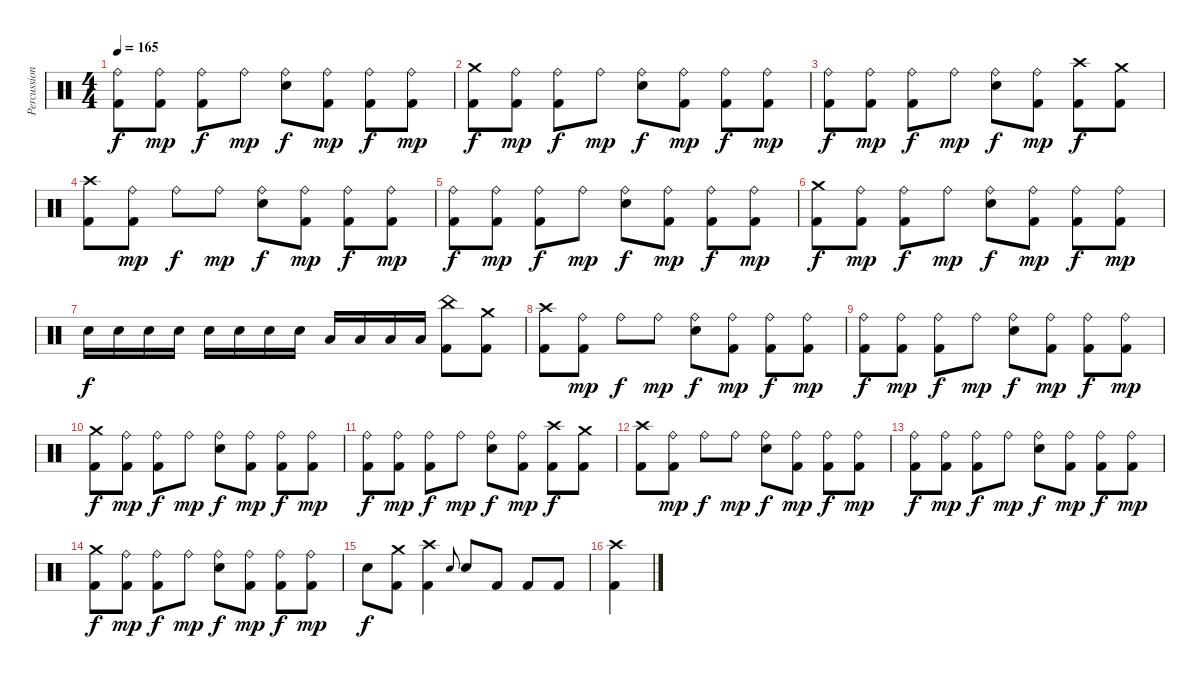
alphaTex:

\track ("Percussions" "Percussion") {instrument percussion}
\staff
\articulation defaults
\ts (4 4)
\tempo 165
\clef neutral
\ks c
("Ride (bell)" "Kick (hit) 2").8{dy f} ("Ride (bell)" "Kick (hit) 2").8{dy mp} ("Ride (bell)" "Kick (hit) 2").8{dy f} "Ride (bell)".8{dy mp} ("Ride (bell)" "Electric Snare (hit)").8{dy f} ("Ride (bell)" "Kick (hit) 2").8{dy mp} ("Ride (bell)" "Kick (hit) 2").8{dy f} ("Ride (bell)" "Kick (hit) 2").8{dy mp} |
("Crash medium (hit)" "Kick (hit) 2").8{dy f} ("Ride (bell)" "Kick (hit) 2").8{dy mp} ("Ride (bell)" "Kick (hit) 2").8{dy f} "Ride (bell)".8{dy mp} ("Ride (bell)" "Electric Snare (hit)").8{dy f} ("Ride (bell)" "Kick (hit) 2").8{dy mp} ("Ride (bell)" "Kick (hit) 2").8{dy f} ("Ride (bell)" "Kick (hit) 2").8{dy mp} |
("Ride (bell)" "Kick (hit) 2").8{dy f} ("Ride (bell)" "Kick (hit) 2").8{dy mp} ("Ride (bell)" "Kick (hit) 2").8{dy f} "Ride (bell)".8{dy mp} ("Ride (bell)" "Electric Snare (hit)").8{dy f} ("Ride (bell)" "Kick (hit) 2").8{dy mp} ("Crash high (hit)" "Kick (hit) 2").8{dy f} ("Crash medium (hit)" "Kick (hit) 2").8 |
("Crash high (hit)" "Kick (hit) 2").8 ("Ride (bell)" "Kick (hit) 2").8{dy mp} "Ride (bell)".8{dy f} "Ride (bell)".8{dy mp} ("Ride (bell)" "Electric Snare (hit)").8{dy f} ("Ride (bell)" "Kick (hit) 2").8{dy mp} ("Ride (bell)" "Kick (hit) 2").8{dy f} ("Ride (bell)" "Kick (hit) 2").8{dy mp} |
("Ride (bell)" "Kick (hit) 2").8{dy f} ("Ride (bell)" "Kick (hit) 2").8{dy mp} ("Ride (bell)" "Kick (hit) 2").8{dy f} "Ride (bell)".8{dy mp} ("Ride (bell)" "Electric Snare (hit)").8{dy f} ("Ride (bell)" "Kick (hit) 2").8{dy mp} ("Ride (bell)" "Kick (hit) 2").8{dy f} ("Ride (bell)" "Kick (hit) 2").8{dy mp} |
("Crash medium (hit)" "Kick (hit) 2").8{dy f} ("Ride (bell)" "Kick (hit) 2").8{dy mp} ("Ride (bell)" "Kick (hit) 2").8{dy f} "Ride (bell)".8{dy mp} ("Ride (bell)" "Electric Snare (hit)").8{dy f} ("Ride (bell)" "Kick (hit) 2").8{dy mp} ("Ride (bell)" "Kick (hit) 2").8{dy f} ("Ride (bell)" "Kick (hit) 2").8{dy mp} |
"Electric Snare (hit)".16{dy f} "Electric Snare (hit)".16 "Electric Snare (hit)".16 "Electric Snare (hit)".16 "Electric Snare (hit)".16 "Electric Snare (hit)".16 "Electric Snare (hit)".16 "Electric Snare (hit)".16 "Low Tom (hit)".16 "Low Tom (hit)".16 "Low Tom (hit)".16 "Low Tom (hit)".16 ("China (hit)" "Kick (hit) 2").8 ("Crash medium (hit)" "Kick (hit) 2").8 |
("Crash high (hit)" "Kick (hit) 2").8 ("Ride (bell)" "Kick (hit) 2").8{dy mp} "Ride (bell)".8{dy f} "Ride (bell)".8{dy mp} ("Ride (bell)" "Electric Snare (hit)").8{dy f} ("Ride (bell)" "Kick (hit) 2").8{dy mp} ("Ride (bell)" "Kick (hit) 2").8{dy f} ("Ride (bell)" "Kick (hit) 2").8{dy mp} |
("Ride (bell)" "Kick (hit) 2").8{dy f} ("Ride (bell)" "Kick (hit) 2").8{dy mp} ("Ride (bell)" "Kick (hit) 2").8{dy f} "Ride (bell)".8{dy mp} ("Ride (bell)" "Electric Snare (hit)").8{dy f} ("Ride (bell)" "Kick (hit) 2").8{dy mp} ("Ride (bell)" "Kick (hit) 2").8{dy f} ("Ride (bell)" "Kick (hit) 2").8{dy mp} |
("Crash medium (hit)" "Kick (hit) 2").8{dy f} ("Ride (bell)" "Kick (hit) 2").8{dy mp} ("Ride (bell)" "Kick (hit) 2").8{dy f} "Ride (bell)".8{dy mp} ("Ride (bell)" "Electric Snare (hit)").8{dy f} ("Ride (bell)" "Kick (hit) 2").8{dy mp} ("Ride (bell)" "Kick (hit) 2").8{dy f} ("Ride (bell)" "Kick (hit) 2").8{dy mp} |
("Ride (bell)" "Kick (hit) 2").8{dy f} ("Ride (bell)" "Kick (hit) 2").8{dy mp} ("Ride (bell)" "Kick (hit) 2").8{dy f} "Ride (bell)".8{dy mp} ("Ride (bell)" "Electric Snare (hit)").8{dy f} ("Ride (bell)" "Kick (hit) 2").8{dy mp} ("Crash high (hit)" "Kick (hit) 2").8{dy f} ("Crash medium (hit)" "Kick (hit) 2").8 |
("Crash high (hit)" "Kick (hit) 2").8 ("Ride (bell)" "Kick (hit) 2").8{dy mp} "Ride (bell)".8{dy f} "Ride (bell)".8{dy mp} ("Ride (bell)" "Electric Snare (hit)").8{dy f} ("Ride (bell)" "Kick (hit) 2").8{dy mp} ("Ride (bell)" "Kick (hit) 2").8{dy f} ("Ride (bell)" "Kick (hit) 2").8{dy mp} |
("Ride (bell)" "Kick (hit) 2").8{dy f} ("Ride (bell)" "Kick (hit) 2").8{dy mp} ("Ride (bell)" "Kick (hit) 2").8{dy f} "Ride (bell)".8{dy mp} ("Ride (bell)" "Electric Snare (hit)").8{dy f} ("Ride (bell)" "Kick (hit) 2").8{dy mp} ("Ride (bell)" "Kick (hit) 2").8{dy f} ("Ride (bell)" "Kick (hit) 2").8{dy mp} |
("Crash medium (hit)" "Kick (hit) 2").8{dy f} ("Ride (bell)" "Kick (hit) 2").8{dy mp} ("Ride (bell)" "Kick (hit) 2").8{dy f} "Ride (bell)".8{dy mp} ("Ride (bell)" "Electric Snare (hit)").8{dy f} ("Ride (bell)" "Kick (hit) 2").8{dy mp} ("Ride (bell)" "Kick (hit) 2").8{dy f} ("Ride (bell)" "Kick (hit) 2").8{dy mp} |
"Electric Snare (hit)".8{dy f} ("Crash medium (hit)" "Kick (hit) 2").8 ("Crash high (hit)" "Kick (hit) 2").4 "Electric Snare (hit)".8{gr onbeat} "Electric Snare (hit)".8 "Kick (hit) 2".8 "Kick (hit) 2".8 "Kick (hit) 2".8 |
("Crash high (hit)" "Kick (hit) 2").4
